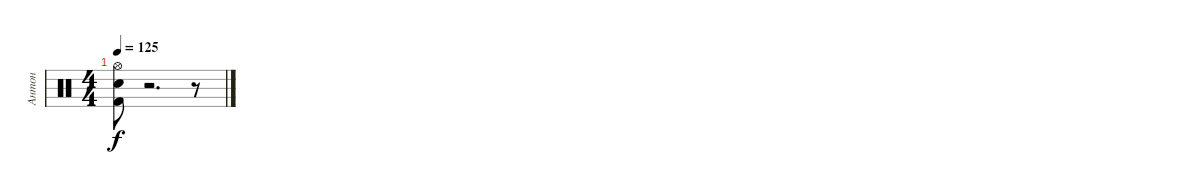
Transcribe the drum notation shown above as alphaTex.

\track ("Антон" "Антон") {instrument percussion}
\staff {score}
\articulation defaults
\ts (4 4)
\tempo 125
\clef neutral
\ks c
("Kick (hit) 2" "Electric Snare (hit)" "Hi-Hat (open)").8{dy f} r.2{d} r.8
